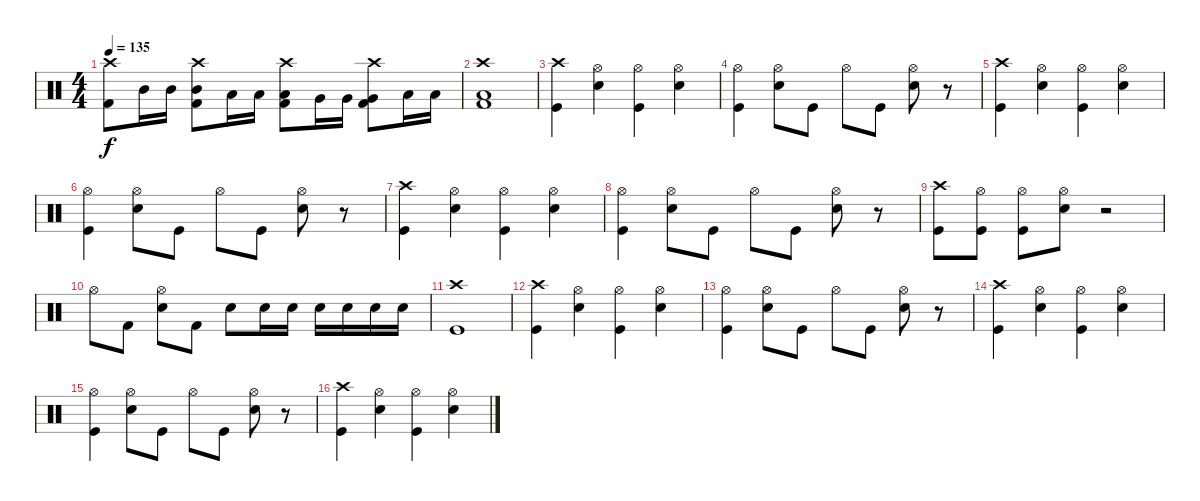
\track "" {instrument percussion}
\staff {score}
\articulation defaults
\ts (4 4)
\tempo 135
\clef neutral
\ks c
("Crash high (hit)" "Kick (hit) 2").8{dy f} "Mid Tom (hit)".16 "Mid Tom (hit)".16 ("Crash high (hit)" "Mid Tom (hit)" "Kick (hit) 2").8 "Low Tom (hit)".16 "Low Tom (hit)".16 ("Crash high (hit)" "Low Tom (hit)" "Kick (hit) 2").8 "Very Low Tom (hit)".16 "Very Low Tom (hit)".16 ("Crash high (hit)" "Very Low Tom (hit)" "Kick (hit) 2").8 "Low Floor Tom (hit)".16 "Low Floor Tom (hit)".16 |
("Crash high (hit)" "Low Floor Tom (hit)" "Kick (hit) 2").1 |
("Kick (hit)" "Crash high (hit)").4 ("Snare (hit) 2" "Hi-Hat (open)").4 ("Hi-Hat (open)" "Kick (hit)").4 ("Snare (hit) 2" "Hi-Hat (open)").4 |
("Kick (hit)" "Hi-Hat (open)").4 ("Snare (hit) 2" "Hi-Hat (open)").8 "Kick (hit)".8 "Hi-Hat (open)".8 "Kick (hit)".8 ("Snare (hit) 2" "Hi-Hat (open)").8 r.8 |
("Kick (hit)" "Crash high (hit)").4 ("Snare (hit) 2" "Hi-Hat (open)").4 ("Hi-Hat (open)" "Kick (hit)").4 ("Snare (hit) 2" "Hi-Hat (open)").4 |
("Kick (hit)" "Hi-Hat (open)").4 ("Snare (hit) 2" "Hi-Hat (open)").8 "Kick (hit)".8 "Hi-Hat (open)".8 "Kick (hit)".8 ("Snare (hit) 2" "Hi-Hat (open)").8 r.8 |
("Kick (hit)" "Crash high (hit)").4 ("Snare (hit) 2" "Hi-Hat (open)").4 ("Hi-Hat (open)" "Kick (hit)").4 ("Snare (hit) 2" "Hi-Hat (open)").4 |
("Kick (hit)" "Hi-Hat (open)").4 ("Snare (hit) 2" "Hi-Hat (open)").8 "Kick (hit)".8 "Hi-Hat (open)".8 "Kick (hit)".8 ("Snare (hit) 2" "Hi-Hat (open)").8 r.8 |
("Kick (hit)" "Crash high (hit)").8 ("Kick (hit)" "Hi-Hat (open)").8 ("Hi-Hat (open)" "Kick (hit)").8 ("Snare (hit) 2" "Hi-Hat (open)").8 r.2 |
"Hi-Hat (open)".8 "Kick (hit) 2".8 ("Hi-Hat (open)" "Electric Snare (hit)").8 "Kick (hit) 2".8 "Electric Snare (hit)".8 "Electric Snare (hit)".16 "Electric Snare (hit)".16 "Electric Snare (hit)".16 "Electric Snare (hit)".16 "Electric Snare (hit)".16 "Electric Snare (hit)".16 |
("Kick (hit)" "Crash high (hit)").1 |
("Kick (hit)" "Crash high (hit)").4 ("Snare (hit) 2" "Hi-Hat (open)").4 ("Hi-Hat (open)" "Kick (hit)").4 ("Snare (hit) 2" "Hi-Hat (open)").4 |
("Kick (hit)" "Hi-Hat (open)").4 ("Snare (hit) 2" "Hi-Hat (open)").8 "Kick (hit)".8 "Hi-Hat (open)".8 "Kick (hit)".8 ("Snare (hit) 2" "Hi-Hat (open)").8 r.8 |
("Kick (hit)" "Crash high (hit)").4 ("Snare (hit) 2" "Hi-Hat (open)").4 ("Hi-Hat (open)" "Kick (hit)").4 ("Snare (hit) 2" "Hi-Hat (open)").4 |
("Kick (hit)" "Hi-Hat (open)").4 ("Snare (hit) 2" "Hi-Hat (open)").8 "Kick (hit)".8 "Hi-Hat (open)".8 "Kick (hit)".8 ("Snare (hit) 2" "Hi-Hat (open)").8 r.8 |
("Kick (hit)" "Crash high (hit)").4 ("Snare (hit) 2" "Hi-Hat (open)").4 ("Hi-Hat (open)" "Kick (hit)").4 ("Snare (hit) 2" "Hi-Hat (open)").4
